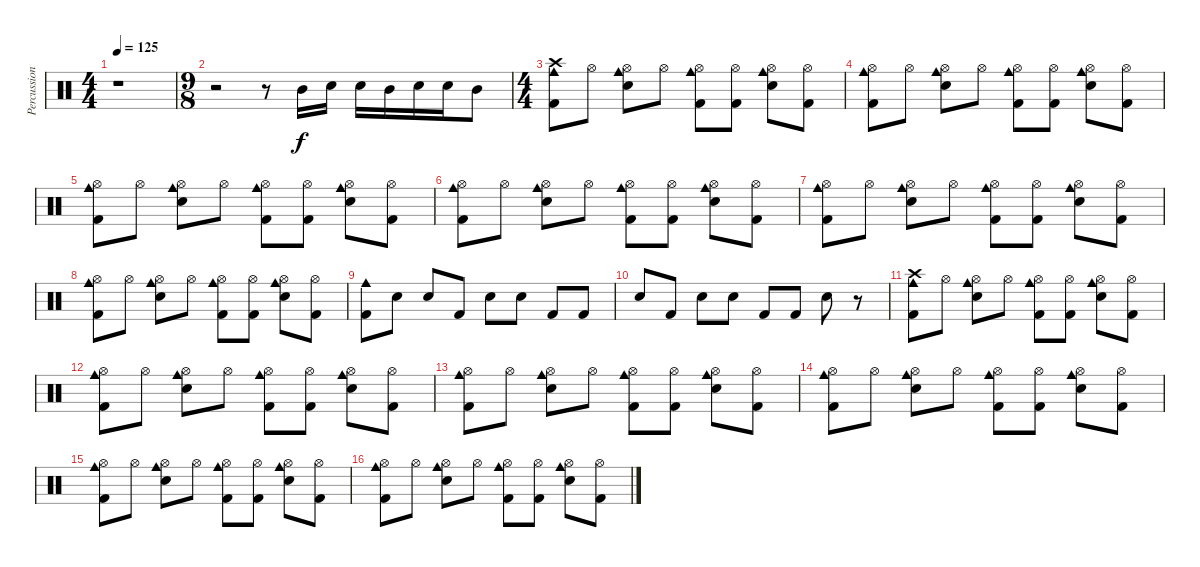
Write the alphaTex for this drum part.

\track ("Percussion" "Percussion") {instrument percussion}
\staff {score}
\articulation defaults
\ts (4 4)
\tempo 125
\clef neutral
\ks c
r.1{dy f} |
\ts (9 8)
r.2 r.8 "Mid Tom (hit)".16 "Snare (hit) 2".16 "Snare (hit) 2".16 "Mid Tom (hit)".16 "Snare (hit) 2".16 "Snare (hit) 2".16 "Mid Tom (hit)".8 |
\ts (4 4)
("Crash high (hit)" "Cowbell medium (hit)" "Kick (hit) 2").8 "Hi-Hat (open)".8 ("Hi-Hat (open)" "Snare (hit) 2" "Cowbell medium (hit)").8 "Hi-Hat (open)".8 ("Hi-Hat (open)" "Cowbell medium (hit)" "Kick (hit) 2").8 ("Hi-Hat (open)" "Kick (hit) 2").8 ("Hi-Hat (open)" "Snare (hit) 2" "Cowbell medium (hit)").8 ("Hi-Hat (open)" "Kick (hit) 2").8 |
("Hi-Hat (open)" "Cowbell medium (hit)" "Kick (hit) 2").8 "Hi-Hat (open)".8 ("Hi-Hat (open)" "Snare (hit) 2" "Cowbell medium (hit)").8 "Hi-Hat (open)".8 ("Hi-Hat (open)" "Cowbell medium (hit)" "Kick (hit) 2").8 ("Hi-Hat (open)" "Kick (hit) 2").8 ("Hi-Hat (open)" "Snare (hit) 2" "Cowbell medium (hit)").8 ("Hi-Hat (open)" "Kick (hit) 2").8 |
("Hi-Hat (open)" "Cowbell medium (hit)" "Kick (hit) 2").8 "Hi-Hat (open)".8 ("Hi-Hat (open)" "Snare (hit) 2" "Cowbell medium (hit)").8 "Hi-Hat (open)".8 ("Hi-Hat (open)" "Cowbell medium (hit)" "Kick (hit) 2").8 ("Hi-Hat (open)" "Kick (hit) 2").8 ("Hi-Hat (open)" "Snare (hit) 2" "Cowbell medium (hit)").8 ("Hi-Hat (open)" "Kick (hit) 2").8 |
("Hi-Hat (open)" "Cowbell medium (hit)" "Kick (hit) 2").8 "Hi-Hat (open)".8 ("Hi-Hat (open)" "Snare (hit) 2" "Cowbell medium (hit)").8 "Hi-Hat (open)".8 ("Hi-Hat (open)" "Cowbell medium (hit)" "Kick (hit) 2").8 ("Hi-Hat (open)" "Kick (hit) 2").8 ("Hi-Hat (open)" "Snare (hit) 2" "Cowbell medium (hit)").8 ("Hi-Hat (open)" "Kick (hit) 2").8 |
("Hi-Hat (open)" "Cowbell medium (hit)" "Kick (hit) 2").8 "Hi-Hat (open)".8 ("Hi-Hat (open)" "Snare (hit) 2" "Cowbell medium (hit)").8 "Hi-Hat (open)".8 ("Hi-Hat (open)" "Cowbell medium (hit)" "Kick (hit) 2").8 ("Hi-Hat (open)" "Kick (hit) 2").8 ("Hi-Hat (open)" "Snare (hit) 2" "Cowbell medium (hit)").8 ("Hi-Hat (open)" "Kick (hit) 2").8 |
("Hi-Hat (open)" "Cowbell medium (hit)" "Kick (hit) 2").8 "Hi-Hat (open)".8 ("Hi-Hat (open)" "Snare (hit) 2" "Cowbell medium (hit)").8 "Hi-Hat (open)".8 ("Hi-Hat (open)" "Cowbell medium (hit)" "Kick (hit) 2").8 ("Hi-Hat (open)" "Kick (hit) 2").8 ("Hi-Hat (open)" "Snare (hit) 2" "Cowbell medium (hit)").8 ("Hi-Hat (open)" "Kick (hit) 2").8 |
("Cowbell medium (hit)" "Kick (hit) 2").8 "Snare (hit) 2".8 "Snare (hit) 2".8 "Kick (hit) 2".8 "Snare (hit) 2".8 "Snare (hit) 2".8 "Kick (hit) 2".8 "Kick (hit) 2".8 |
"Snare (hit) 2".8 "Kick (hit) 2".8 "Snare (hit) 2".8 "Snare (hit) 2".8 "Kick (hit) 2".8 "Kick (hit) 2".8 "Snare (hit) 2".8 r.8 |
("Crash high (hit)" "Cowbell medium (hit)" "Kick (hit) 2").8 "Hi-Hat (open)".8 ("Hi-Hat (open)" "Snare (hit) 2" "Cowbell medium (hit)").8 "Hi-Hat (open)".8 ("Hi-Hat (open)" "Cowbell medium (hit)" "Kick (hit) 2").8 ("Hi-Hat (open)" "Kick (hit) 2").8 ("Hi-Hat (open)" "Snare (hit) 2" "Cowbell medium (hit)").8 ("Hi-Hat (open)" "Kick (hit) 2").8 |
("Hi-Hat (open)" "Cowbell medium (hit)" "Kick (hit) 2").8 "Hi-Hat (open)".8 ("Hi-Hat (open)" "Snare (hit) 2" "Cowbell medium (hit)").8 "Hi-Hat (open)".8 ("Hi-Hat (open)" "Cowbell medium (hit)" "Kick (hit) 2").8 ("Hi-Hat (open)" "Kick (hit) 2").8 ("Hi-Hat (open)" "Snare (hit) 2" "Cowbell medium (hit)").8 ("Hi-Hat (open)" "Kick (hit) 2").8 |
("Hi-Hat (open)" "Cowbell medium (hit)" "Kick (hit) 2").8 "Hi-Hat (open)".8 ("Hi-Hat (open)" "Snare (hit) 2" "Cowbell medium (hit)").8 "Hi-Hat (open)".8 ("Hi-Hat (open)" "Cowbell medium (hit)" "Kick (hit) 2").8 ("Hi-Hat (open)" "Kick (hit) 2").8 ("Hi-Hat (open)" "Snare (hit) 2" "Cowbell medium (hit)").8 ("Hi-Hat (open)" "Kick (hit) 2").8 |
("Hi-Hat (open)" "Cowbell medium (hit)" "Kick (hit) 2").8 "Hi-Hat (open)".8 ("Hi-Hat (open)" "Snare (hit) 2" "Cowbell medium (hit)").8 "Hi-Hat (open)".8 ("Hi-Hat (open)" "Cowbell medium (hit)" "Kick (hit) 2").8 ("Hi-Hat (open)" "Kick (hit) 2").8 ("Hi-Hat (open)" "Snare (hit) 2" "Cowbell medium (hit)").8 ("Hi-Hat (open)" "Kick (hit) 2").8 |
("Hi-Hat (open)" "Cowbell medium (hit)" "Kick (hit) 2").8 "Hi-Hat (open)".8 ("Hi-Hat (open)" "Snare (hit) 2" "Cowbell medium (hit)").8 "Hi-Hat (open)".8 ("Hi-Hat (open)" "Cowbell medium (hit)" "Kick (hit) 2").8 ("Hi-Hat (open)" "Kick (hit) 2").8 ("Hi-Hat (open)" "Snare (hit) 2" "Cowbell medium (hit)").8 ("Hi-Hat (open)" "Kick (hit) 2").8 |
("Hi-Hat (open)" "Cowbell medium (hit)" "Kick (hit) 2").8 "Hi-Hat (open)".8 ("Hi-Hat (open)" "Snare (hit) 2" "Cowbell medium (hit)").8 "Hi-Hat (open)".8 ("Hi-Hat (open)" "Cowbell medium (hit)" "Kick (hit) 2").8 ("Hi-Hat (open)" "Kick (hit) 2").8 ("Hi-Hat (open)" "Snare (hit) 2" "Cowbell medium (hit)").8 ("Hi-Hat (open)" "Kick (hit) 2").8
